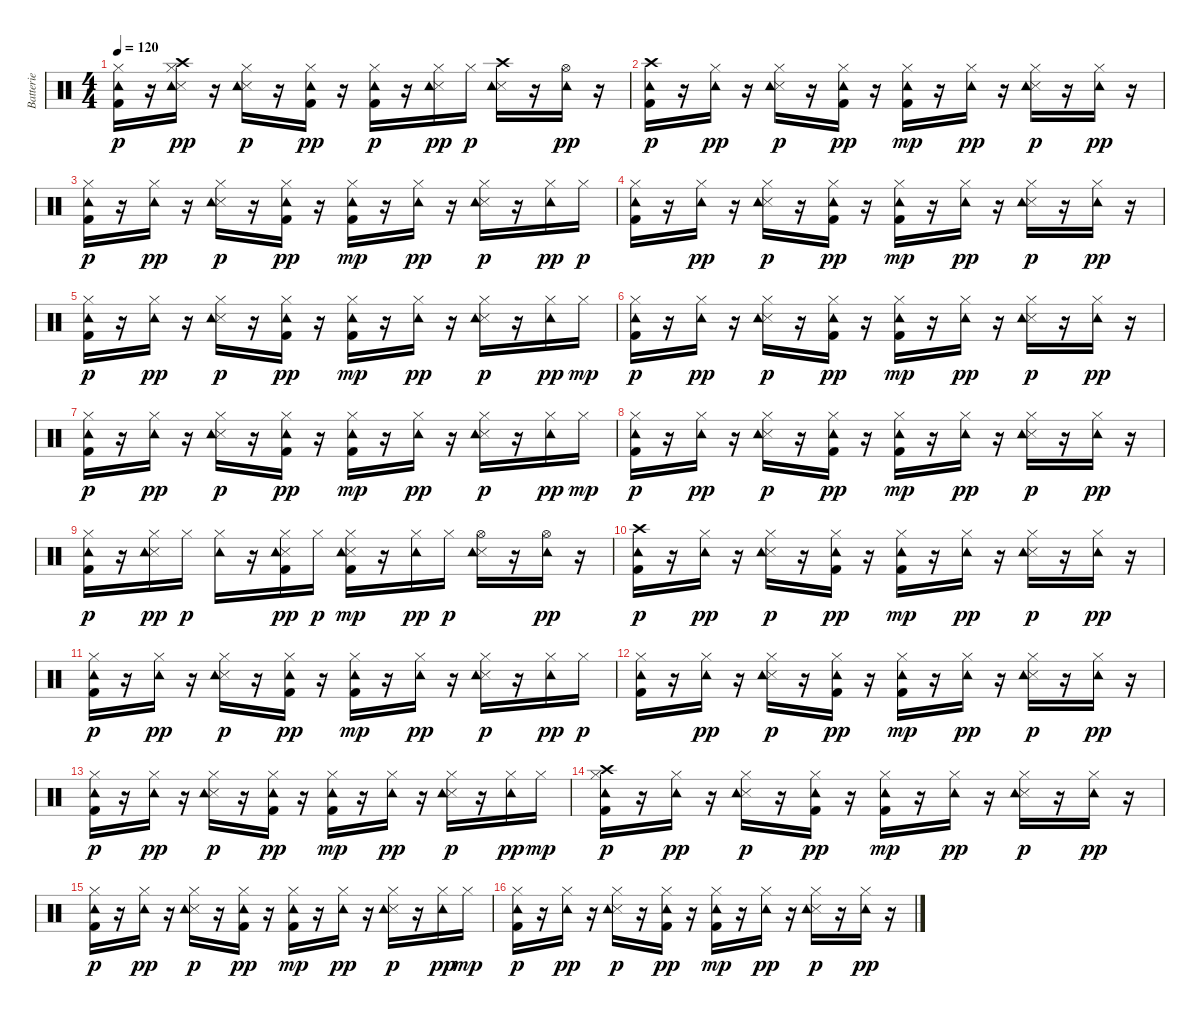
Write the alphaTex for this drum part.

\track ("Batterie" "Batterie") {instrument percussion}
\staff {score}
\articulation defaults
\ts (4 4)
\tempo 120
\clef neutral
\ks c
("Kick (hit) 2" "Hi-Hat (closed)" "Tambourine (hit)").16{dy p} r.16 ("Hi-Hat (closed)" "Crash high (hit)" "Snare (side stick) 3" "Tambourine (hit)").16{dy pp} r.16 ("Hi-Hat (closed)" "Snare (side stick) 3" "Tambourine (hit)").16{dy p} r.16 ("Kick (hit) 2" "Hi-Hat (closed)" "Tambourine (hit)").16{dy pp} r.16 ("Kick (hit) 2" "Hi-Hat (closed)" "Tambourine (hit)").16{dy p} r.16 ("Hi-Hat (closed)" "Snare (side stick) 3" "Tambourine (hit)").16{dy pp} "Hi-Hat (closed)".16{dy p} ("Crash high (hit)" "Snare (side stick) 3" "Tambourine (hit)").16 r.16 ("Hi-Hat (open)" "Tambourine (hit)").16{dy pp} r.16 |
("Kick (hit) 2" "Crash high (hit)" "Tambourine (hit)").16{dy p} r.16 ("Hi-Hat (closed)" "Tambourine (hit)").16{dy pp} r.16 ("Hi-Hat (closed)" "Snare (side stick) 3" "Tambourine (hit)").16{dy p} r.16 ("Kick (hit) 2" "Hi-Hat (closed)" "Tambourine (hit)").16{dy pp} r.16 ("Kick (hit) 2" "Hi-Hat (closed)" "Tambourine (hit)").16{dy mp} r.16 ("Hi-Hat (closed)" "Tambourine (hit)").16{dy pp} r.16 ("Hi-Hat (closed)" "Snare (side stick) 3" "Tambourine (hit)").16{dy p} r.16 ("Hi-Hat (closed)" "Tambourine (hit)").16{dy pp} r.16 |
("Kick (hit) 2" "Hi-Hat (closed)" "Tambourine (hit)").16{dy p} r.16 ("Hi-Hat (closed)" "Tambourine (hit)").16{dy pp} r.16 ("Hi-Hat (closed)" "Snare (side stick) 3" "Tambourine (hit)").16{dy p} r.16 ("Kick (hit) 2" "Hi-Hat (closed)" "Tambourine (hit)").16{dy pp} r.16 ("Kick (hit) 2" "Hi-Hat (closed)" "Tambourine (hit)").16{dy mp} r.16 ("Hi-Hat (closed)" "Tambourine (hit)").16{dy pp} r.16 ("Hi-Hat (closed)" "Snare (side stick) 3" "Tambourine (hit)").16{dy p} r.16 ("Hi-Hat (closed)" "Tambourine (hit)").16{dy pp} "Hi-Hat (closed)".16{dy p} |
("Kick (hit) 2" "Hi-Hat (closed)" "Tambourine (hit)").16 r.16 ("Hi-Hat (closed)" "Tambourine (hit)").16{dy pp} r.16 ("Hi-Hat (closed)" "Snare (side stick) 3" "Tambourine (hit)").16{dy p} r.16 ("Kick (hit) 2" "Hi-Hat (closed)" "Tambourine (hit)").16{dy pp} r.16 ("Kick (hit) 2" "Hi-Hat (closed)" "Tambourine (hit)").16{dy mp} r.16 ("Hi-Hat (closed)" "Tambourine (hit)").16{dy pp} r.16 ("Hi-Hat (closed)" "Snare (side stick) 3" "Tambourine (hit)").16{dy p} r.16 ("Hi-Hat (closed)" "Tambourine (hit)").16{dy pp} r.16 |
("Kick (hit) 2" "Hi-Hat (closed)" "Tambourine (hit)").16{dy p} r.16 ("Hi-Hat (closed)" "Tambourine (hit)").16{dy pp} r.16 ("Hi-Hat (closed)" "Snare (side stick) 3" "Tambourine (hit)").16{dy p} r.16 ("Kick (hit) 2" "Hi-Hat (closed)" "Tambourine (hit)").16{dy pp} r.16 ("Kick (hit) 2" "Hi-Hat (closed)" "Tambourine (hit)").16{dy mp} r.16 ("Hi-Hat (closed)" "Tambourine (hit)").16{dy pp} r.16 ("Hi-Hat (closed)" "Snare (side stick) 3" "Tambourine (hit)").16{dy p} r.16 ("Hi-Hat (closed)" "Tambourine (hit)").16{dy pp} "Hi-Hat (closed)".16{dy mp} |
("Kick (hit) 2" "Hi-Hat (closed)" "Tambourine (hit)").16{dy p} r.16 ("Hi-Hat (closed)" "Tambourine (hit)").16{dy pp} r.16 ("Hi-Hat (closed)" "Snare (side stick) 3" "Tambourine (hit)").16{dy p} r.16 ("Kick (hit) 2" "Hi-Hat (closed)" "Tambourine (hit)").16{dy pp} r.16 ("Kick (hit) 2" "Hi-Hat (closed)" "Tambourine (hit)").16{dy mp} r.16 ("Hi-Hat (closed)" "Tambourine (hit)").16{dy pp} r.16 ("Hi-Hat (closed)" "Snare (side stick) 3" "Tambourine (hit)").16{dy p} r.16 ("Hi-Hat (closed)" "Tambourine (hit)").16{dy pp} r.16 |
("Kick (hit) 2" "Hi-Hat (closed)" "Tambourine (hit)").16{dy p} r.16 ("Hi-Hat (closed)" "Tambourine (hit)").16{dy pp} r.16 ("Hi-Hat (closed)" "Snare (side stick) 3" "Tambourine (hit)").16{dy p} r.16 ("Kick (hit) 2" "Hi-Hat (closed)" "Tambourine (hit)").16{dy pp} r.16 ("Kick (hit) 2" "Hi-Hat (closed)" "Tambourine (hit)").16{dy mp} r.16 ("Hi-Hat (closed)" "Tambourine (hit)").16{dy pp} r.16 ("Hi-Hat (closed)" "Snare (side stick) 3" "Tambourine (hit)").16{dy p} r.16 ("Hi-Hat (closed)" "Tambourine (hit)").16{dy pp} "Hi-Hat (closed)".16{dy mp} |
("Kick (hit) 2" "Hi-Hat (closed)" "Tambourine (hit)").16{dy p} r.16 ("Hi-Hat (closed)" "Tambourine (hit)").16{dy pp} r.16 ("Hi-Hat (closed)" "Snare (side stick) 3" "Tambourine (hit)").16{dy p} r.16 ("Kick (hit) 2" "Hi-Hat (closed)" "Tambourine (hit)").16{dy pp} r.16 ("Kick (hit) 2" "Hi-Hat (closed)" "Tambourine (hit)").16{dy mp} r.16 ("Hi-Hat (closed)" "Tambourine (hit)").16{dy pp} r.16 ("Hi-Hat (closed)" "Snare (side stick) 3" "Tambourine (hit)").16{dy p} r.16 ("Hi-Hat (closed)" "Tambourine (hit)").16{dy pp} r.16 |
("Kick (hit) 2" "Hi-Hat (closed)" "Tambourine (hit)").16{dy p} r.16 ("Hi-Hat (closed)" "Snare (side stick) 3" "Tambourine (hit)").16{dy pp} "Hi-Hat (closed)".16{dy p} ("Hi-Hat (closed)" "Tambourine (hit)").16 r.16 ("Kick (hit) 2" "Hi-Hat (closed)" "Snare (side stick) 3" "Tambourine (hit)").16{dy pp} "Hi-Hat (closed)".16{dy p} ("Kick (hit) 2" "Hi-Hat (closed)" "Snare (side stick) 3" "Tambourine (hit)").16{dy mp} r.16 ("Hi-Hat (closed)" "Tambourine (hit)").16{dy pp} "Hi-Hat (closed)".16{dy p} ("Hi-Hat (open)" "Snare (side stick) 3" "Tambourine (hit)").16 r.16 ("Hi-Hat (open)" "Tambourine (hit)").16{dy pp} r.16 |
("Kick (hit) 2" "Crash high (hit)" "Tambourine (hit)").16{dy p} r.16 ("Hi-Hat (closed)" "Tambourine (hit)").16{dy pp} r.16 ("Hi-Hat (closed)" "Snare (side stick) 3" "Tambourine (hit)").16{dy p} r.16 ("Kick (hit) 2" "Hi-Hat (closed)" "Tambourine (hit)").16{dy pp} r.16 ("Kick (hit) 2" "Hi-Hat (closed)" "Tambourine (hit)").16{dy mp} r.16 ("Hi-Hat (closed)" "Tambourine (hit)").16{dy pp} r.16 ("Hi-Hat (closed)" "Snare (side stick) 3" "Tambourine (hit)").16{dy p} r.16 ("Hi-Hat (closed)" "Tambourine (hit)").16{dy pp} r.16 |
("Kick (hit) 2" "Hi-Hat (closed)" "Tambourine (hit)").16{dy p} r.16 ("Hi-Hat (closed)" "Tambourine (hit)").16{dy pp} r.16 ("Hi-Hat (closed)" "Snare (side stick) 3" "Tambourine (hit)").16{dy p} r.16 ("Kick (hit) 2" "Hi-Hat (closed)" "Tambourine (hit)").16{dy pp} r.16 ("Kick (hit) 2" "Hi-Hat (closed)" "Tambourine (hit)").16{dy mp} r.16 ("Hi-Hat (closed)" "Tambourine (hit)").16{dy pp} r.16 ("Hi-Hat (closed)" "Snare (side stick) 3" "Tambourine (hit)").16{dy p} r.16 ("Hi-Hat (closed)" "Tambourine (hit)").16{dy pp} "Hi-Hat (closed)".16{dy p} |
("Kick (hit) 2" "Hi-Hat (closed)" "Tambourine (hit)").16 r.16 ("Hi-Hat (closed)" "Tambourine (hit)").16{dy pp} r.16 ("Hi-Hat (closed)" "Snare (side stick) 3" "Tambourine (hit)").16{dy p} r.16 ("Kick (hit) 2" "Hi-Hat (closed)" "Tambourine (hit)").16{dy pp} r.16 ("Kick (hit) 2" "Hi-Hat (closed)" "Tambourine (hit)").16{dy mp} r.16 ("Hi-Hat (closed)" "Tambourine (hit)").16{dy pp} r.16 ("Hi-Hat (closed)" "Snare (side stick) 3" "Tambourine (hit)").16{dy p} r.16 ("Hi-Hat (closed)" "Tambourine (hit)").16{dy pp} r.16 |
("Kick (hit) 2" "Hi-Hat (closed)" "Tambourine (hit)").16{dy p} r.16 ("Hi-Hat (closed)" "Tambourine (hit)").16{dy pp} r.16 ("Hi-Hat (closed)" "Snare (side stick) 3" "Tambourine (hit)").16{dy p} r.16 ("Kick (hit) 2" "Hi-Hat (closed)" "Tambourine (hit)").16{dy pp} r.16 ("Kick (hit) 2" "Hi-Hat (closed)" "Tambourine (hit)").16{dy mp} r.16 ("Hi-Hat (closed)" "Tambourine (hit)").16{dy pp} r.16 ("Hi-Hat (closed)" "Snare (side stick) 3" "Tambourine (hit)").16{dy p} r.16 ("Hi-Hat (closed)" "Tambourine (hit)").16{dy pp} "Hi-Hat (closed)".16{dy mp} |
("Kick (hit) 2" "Hi-Hat (closed)" "Crash high (hit)" "Tambourine (hit)").16{dy p} r.16 ("Hi-Hat (closed)" "Tambourine (hit)").16{dy pp} r.16 ("Hi-Hat (closed)" "Snare (side stick) 3" "Tambourine (hit)").16{dy p} r.16 ("Kick (hit) 2" "Hi-Hat (closed)" "Tambourine (hit)").16{dy pp} r.16 ("Kick (hit) 2" "Hi-Hat (closed)" "Tambourine (hit)").16{dy mp} r.16 ("Hi-Hat (closed)" "Tambourine (hit)").16{dy pp} r.16 ("Hi-Hat (closed)" "Snare (side stick) 3" "Tambourine (hit)").16{dy p} r.16 ("Hi-Hat (closed)" "Tambourine (hit)").16{dy pp} r.16 |
("Kick (hit) 2" "Hi-Hat (closed)" "Tambourine (hit)").16{dy p} r.16 ("Hi-Hat (closed)" "Tambourine (hit)").16{dy pp} r.16 ("Hi-Hat (closed)" "Snare (side stick) 3" "Tambourine (hit)").16{dy p} r.16 ("Kick (hit) 2" "Hi-Hat (closed)" "Tambourine (hit)").16{dy pp} r.16 ("Kick (hit) 2" "Hi-Hat (closed)" "Tambourine (hit)").16{dy mp} r.16 ("Hi-Hat (closed)" "Tambourine (hit)").16{dy pp} r.16 ("Hi-Hat (closed)" "Snare (side stick) 3" "Tambourine (hit)").16{dy p} r.16 ("Hi-Hat (closed)" "Tambourine (hit)").16{dy pp} "Hi-Hat (closed)".16{dy mp} |
("Kick (hit) 2" "Hi-Hat (closed)" "Tambourine (hit)").16{dy p} r.16 ("Hi-Hat (closed)" "Tambourine (hit)").16{dy pp} r.16 ("Hi-Hat (closed)" "Snare (side stick) 3" "Tambourine (hit)").16{dy p} r.16 ("Kick (hit) 2" "Hi-Hat (closed)" "Tambourine (hit)").16{dy pp} r.16 ("Kick (hit) 2" "Hi-Hat (closed)" "Tambourine (hit)").16{dy mp} r.16 ("Hi-Hat (closed)" "Tambourine (hit)").16{dy pp} r.16 ("Hi-Hat (closed)" "Snare (side stick) 3" "Tambourine (hit)").16{dy p} r.16 ("Hi-Hat (closed)" "Tambourine (hit)").16{dy pp} r.16
